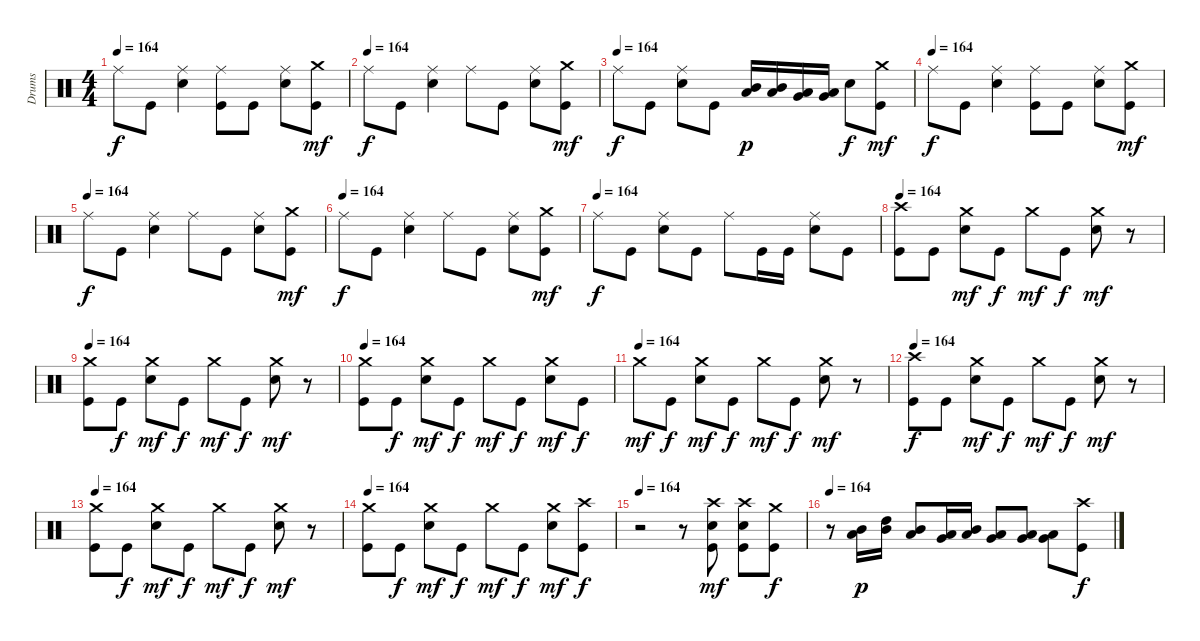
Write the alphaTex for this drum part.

\track ("Drums" "Drums") {instrument percussion}
\staff {score}
\articulation defaults
\ts (4 4)
\tempo 164
\clef neutral
\ks c "Ride (middle)".8{dy f} "Kick (hit)".8
("Electric Snare (hit)" "Ride (middle)").4 ("Kick (hit)" "Ride (middle)").8 "Kick (hit)".8 ("Electric Snare (hit)" "Ride (middle)").8 ("Kick (hit)" "Crash medium (hit)").8{dy mf} |
\tempo (164)
"Ride (middle)".8{dy f} "Kick (hit)".8 ("Electric Snare (hit)" "Ride (middle)").4 "Ride (middle)".8 "Kick (hit)".8 ("Electric Snare (hit)" "Ride (middle)").8 ("Kick (hit)" "Crash medium (hit)").8{dy mf} |
\tempo (164)
"Ride (middle)".8{dy f} "Kick (hit)".8 ("Electric Snare (hit)" "Ride (middle)").8 "Kick (hit)".8 ("Low Tom (hit)" "Mid Tom (hit)").16{dy p} ("Low Tom (hit)" "Mid Tom (hit)").16 ("Very Low Tom (hit)" "Low Tom (hit)").16 ("Very Low Tom (hit)" "Low Tom (hit)").16 "Electric Snare (hit)".8{dy f} ("Kick (hit)" "Crash medium (hit)").8{dy mf} |
\tempo (164)
"Ride (middle)".8{dy f} "Kick (hit)".8 ("Electric Snare (hit)" "Ride (middle)").4 ("Kick (hit)" "Ride (middle)").8 "Kick (hit)".8 ("Electric Snare (hit)" "Ride (middle)").8 ("Kick (hit)" "Crash medium (hit)").8{dy mf} |
\tempo (164)
"Ride (middle)".8{dy f} "Kick (hit)".8 ("Electric Snare (hit)" "Ride (middle)").4 "Ride (middle)".8 "Kick (hit)".8 ("Electric Snare (hit)" "Ride (middle)").8 ("Kick (hit)" "Crash medium (hit)").8{dy mf} |
\tempo (164)
"Ride (middle)".8{dy f} "Kick (hit)".8 ("Electric Snare (hit)" "Ride (middle)").4 "Ride (middle)".8 "Kick (hit)".8 ("Electric Snare (hit)" "Ride (middle)").8 ("Kick (hit)" "Crash medium (hit)").8{dy mf} |
\tempo (164)
"Ride (middle)".8{dy f} "Kick (hit)".8 ("Electric Snare (hit)" "Ride (middle)").8 "Kick (hit)".8 "Ride (middle)".8 "Kick (hit)".16 "Kick (hit)".16 ("Electric Snare (hit)" "Ride (middle)").8 "Kick (hit)".8 |
\tempo 164
("Kick (hit)" "Crash high (hit)").8 "Kick (hit)".8 ("Electric Snare (hit)" "Crash medium (hit)").8{dy mf} "Kick (hit)".8{dy f} "Crash medium (hit)".8{dy mf} "Kick (hit)".8{dy f} ("Electric Snare (hit)" "Crash medium (hit)").8{dy mf} r.8 |
\tempo 164
("Kick (hit)" "Crash medium (hit)").8 "Kick (hit)".8{dy f} ("Electric Snare (hit)" "Crash medium (hit)").8{dy mf} "Kick (hit)".8{dy f} "Crash medium (hit)".8{dy mf} "Kick (hit)".8{dy f} ("Electric Snare (hit)" "Crash medium (hit)").8{dy mf} r.8 |
\tempo 164
("Kick (hit)" "Crash medium (hit)").8 "Kick (hit)".8{dy f} ("Electric Snare (hit)" "Crash medium (hit)").8{dy mf} "Kick (hit)".8{dy f} "Crash medium (hit)".8{dy mf} "Kick (hit)".8{dy f} ("Electric Snare (hit)" "Crash medium (hit)").8{dy mf} "Kick (hit)".8{dy f} |
\tempo (164)
"Crash medium (hit)".8{dy mf} "Kick (hit)".8{dy f} ("Electric Snare (hit)" "Crash medium (hit)").8{dy mf} "Kick (hit)".8{dy f} "Crash medium (hit)".8{dy mf} "Kick (hit)".8{dy f} ("Electric Snare (hit)" "Crash medium (hit)").8{dy mf} r.8 |
\tempo 164
("Kick (hit)" "Crash high (hit)").8{dy f} "Kick (hit)".8 ("Electric Snare (hit)" "Crash medium (hit)").8{dy mf} "Kick (hit)".8{dy f} "Crash medium (hit)".8{dy mf} "Kick (hit)".8{dy f} ("Electric Snare (hit)" "Crash medium (hit)").8{dy mf} r.8 |
\tempo 164
("Kick (hit)" "Crash medium (hit)").8 "Kick (hit)".8{dy f} ("Electric Snare (hit)" "Crash medium (hit)").8{dy mf} "Kick (hit)".8{dy f} "Crash medium (hit)".8{dy mf} "Kick (hit)".8{dy f} ("Electric Snare (hit)" "Crash medium (hit)").8{dy mf} r.8 |
\tempo 164
("Kick (hit)" "Crash medium (hit)").8 "Kick (hit)".8{dy f} ("Electric Snare (hit)" "Crash medium (hit)").8{dy mf} "Kick (hit)".8{dy f} "Crash medium (hit)".8{dy mf} "Kick (hit)".8{dy f} ("Electric Snare (hit)" "Crash medium (hit)").8{dy mf} ("Kick (hit)" "Crash high (hit)").8{dy f} |
\tempo 164
r.2 r.8 ("Kick (hit)" "Electric Snare (hit)" "Crash high (hit)").8{dy mf} ("Kick (hit)" "Electric Snare (hit)" "Crash high (hit)").8 ("Kick (hit)" "Crash medium (hit)").8{dy f} |
\tempo 164
r.8 ("Mid Tom (hit)" "Low Tom (hit)").16{dy p} ("High Tom (hit)" "Mid Tom (hit)").16 ("Mid Tom (hit)" "Low Tom (hit)").8 ("Low Tom (hit)" "Very Low Tom (hit)").16 ("Mid Tom (hit)" "Low Tom (hit)").16 ("Low Tom (hit)" "Very Low Tom (hit)").8 ("Very Low Tom (hit)" "Low Floor Tom (hit)").8 ("Low Floor Tom (hit)" "Very Low Tom (hit)").8 ("Kick (hit)" "Crash high (hit)").8{dy f}
